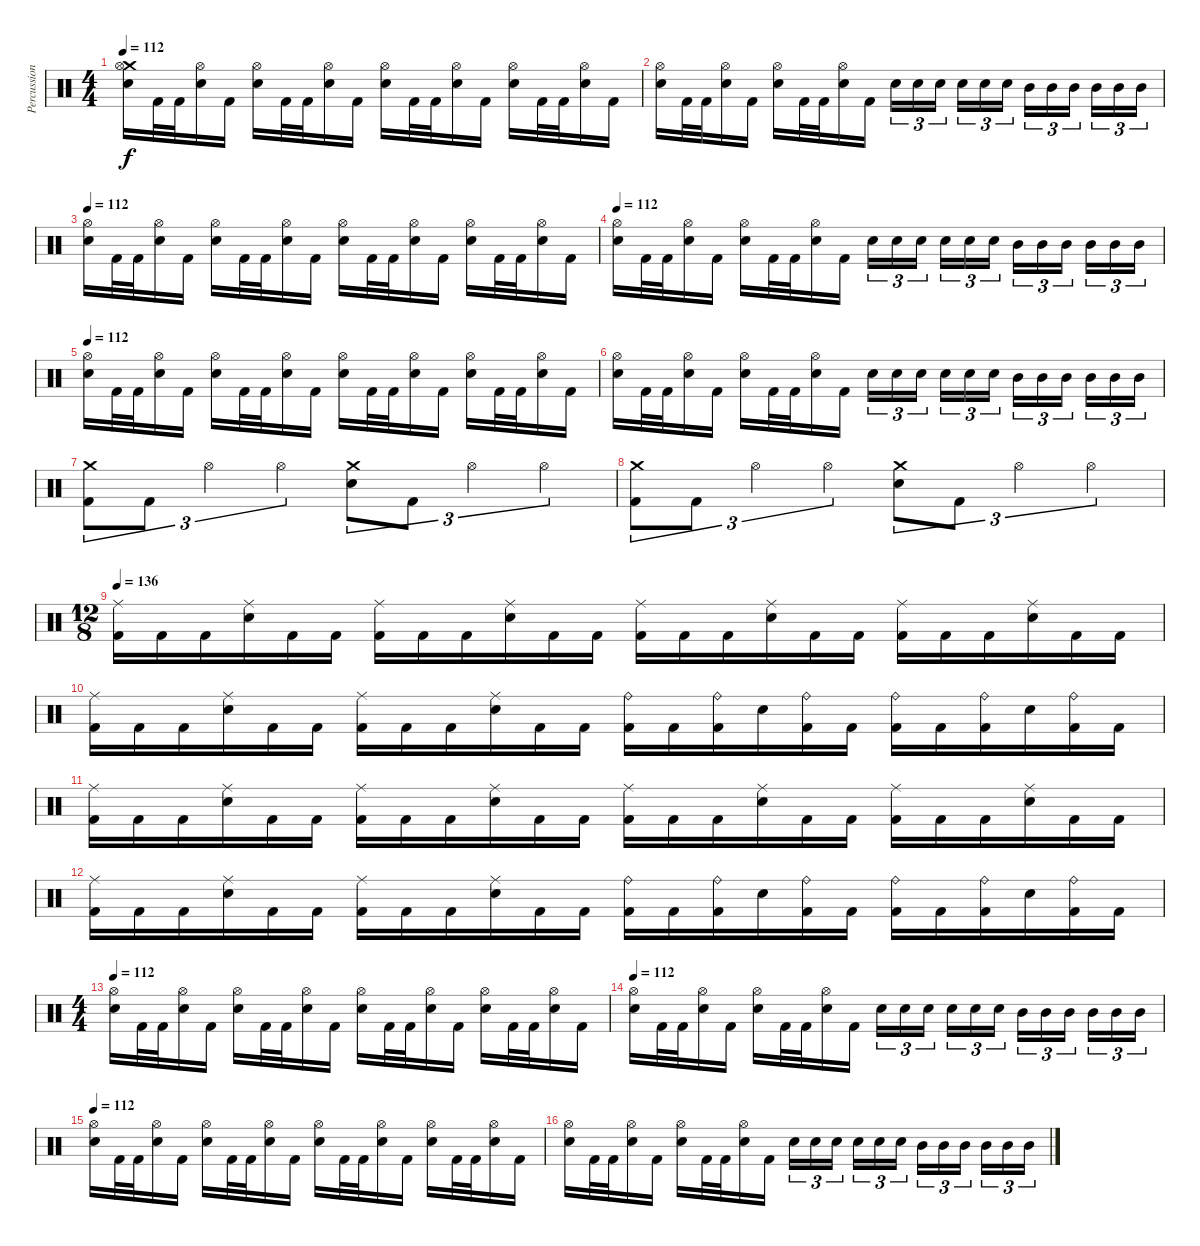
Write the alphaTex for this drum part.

\track ("Percussion" "Percussion") {instrument percussion}
\staff {score}
\articulation defaults
\ts (4 4)
\tempo 112
\clef neutral
\ks c
("Crash medium (hit)" "Hi-Hat (open)" "Snare (hit) 2").16{dy f} "Kick (hit) 2".32 "Kick (hit) 2".32 ("Hi-Hat (open)" "Snare (hit) 2").16 "Kick (hit) 2".16 ("Hi-Hat (open)" "Snare (hit) 2").16 "Kick (hit) 2".32 "Kick (hit) 2".32 ("Hi-Hat (open)" "Snare (hit) 2").16 "Kick (hit) 2".16 ("Hi-Hat (open)" "Snare (hit) 2").16 "Kick (hit) 2".32 "Kick (hit) 2".32 ("Hi-Hat (open)" "Snare (hit) 2").16 "Kick (hit) 2".16 ("Hi-Hat (open)" "Snare (hit) 2").16 "Kick (hit) 2".32 "Kick (hit) 2".32 ("Hi-Hat (open)" "Snare (hit) 2").16 "Kick (hit) 2".16 |
("Hi-Hat (open)" "Snare (hit) 2").16 "Kick (hit) 2".32 "Kick (hit) 2".32 ("Hi-Hat (open)" "Snare (hit) 2").16 "Kick (hit) 2".16 ("Hi-Hat (open)" "Snare (hit) 2").16 "Kick (hit) 2".32 "Kick (hit) 2".32 ("Hi-Hat (open)" "Snare (hit) 2").16 "Kick (hit) 2".16 "Snare (hit) 2".16{tu (3 2)} "Snare (hit) 2".16{tu (3 2)} "Snare (hit) 2".16{tu (3 2) beam splitsecondary} "Snare (hit) 2".16{tu (3 2)} "Snare (hit) 2".16{tu (3 2)} "Snare (hit) 2".16{tu (3 2)} "Mid Tom (hit)".16{tu (3 2)} "Mid Tom (hit)".16{tu (3 2)} "Mid Tom (hit)".16{tu (3 2) beam splitsecondary} "Mid Tom (hit)".16{tu (3 2)} "Mid Tom (hit)".16{tu (3 2)} "Mid Tom (hit)".16{tu (3 2)} |
\tempo 112
("Hi-Hat (open)" "Snare (hit) 2").16 "Kick (hit) 2".32 "Kick (hit) 2".32 ("Hi-Hat (open)" "Snare (hit) 2").16 "Kick (hit) 2".16 ("Hi-Hat (open)" "Snare (hit) 2").16 "Kick (hit) 2".32 "Kick (hit) 2".32 ("Hi-Hat (open)" "Snare (hit) 2").16 "Kick (hit) 2".16 ("Hi-Hat (open)" "Snare (hit) 2").16 "Kick (hit) 2".32 "Kick (hit) 2".32 ("Hi-Hat (open)" "Snare (hit) 2").16 "Kick (hit) 2".16 ("Hi-Hat (open)" "Snare (hit) 2").16 "Kick (hit) 2".32 "Kick (hit) 2".32 ("Hi-Hat (open)" "Snare (hit) 2").16 "Kick (hit) 2".16 |
\tempo 112
("Hi-Hat (open)" "Snare (hit) 2").16 "Kick (hit) 2".32 "Kick (hit) 2".32 ("Hi-Hat (open)" "Snare (hit) 2").16 "Kick (hit) 2".16 ("Hi-Hat (open)" "Snare (hit) 2").16 "Kick (hit) 2".32 "Kick (hit) 2".32 ("Hi-Hat (open)" "Snare (hit) 2").16 "Kick (hit) 2".16 "Snare (hit) 2".16{tu (3 2)} "Snare (hit) 2".16{tu (3 2)} "Snare (hit) 2".16{tu (3 2) beam splitsecondary} "Snare (hit) 2".16{tu (3 2)} "Snare (hit) 2".16{tu (3 2)} "Snare (hit) 2".16{tu (3 2)} "Mid Tom (hit)".16{tu (3 2)} "Mid Tom (hit)".16{tu (3 2)} "Mid Tom (hit)".16{tu (3 2) beam splitsecondary} "Mid Tom (hit)".16{tu (3 2)} "Mid Tom (hit)".16{tu (3 2)} "Mid Tom (hit)".16{tu (3 2)} |
\tempo 112
("Hi-Hat (open)" "Snare (hit) 2").16 "Kick (hit) 2".32 "Kick (hit) 2".32 ("Hi-Hat (open)" "Snare (hit) 2").16 "Kick (hit) 2".16 ("Hi-Hat (open)" "Snare (hit) 2").16 "Kick (hit) 2".32 "Kick (hit) 2".32 ("Hi-Hat (open)" "Snare (hit) 2").16 "Kick (hit) 2".16 ("Hi-Hat (open)" "Snare (hit) 2").16 "Kick (hit) 2".32 "Kick (hit) 2".32 ("Hi-Hat (open)" "Snare (hit) 2").16 "Kick (hit) 2".16 ("Hi-Hat (open)" "Snare (hit) 2").16 "Kick (hit) 2".32 "Kick (hit) 2".32 ("Hi-Hat (open)" "Snare (hit) 2").16 "Kick (hit) 2".16 |
("Hi-Hat (open)" "Snare (hit) 2").16 "Kick (hit) 2".32 "Kick (hit) 2".32 ("Hi-Hat (open)" "Snare (hit) 2").16 "Kick (hit) 2".16 ("Hi-Hat (open)" "Snare (hit) 2").16 "Kick (hit) 2".32 "Kick (hit) 2".32 ("Hi-Hat (open)" "Snare (hit) 2").16 "Kick (hit) 2".16 "Snare (hit) 2".16{tu (3 2)} "Snare (hit) 2".16{tu (3 2)} "Snare (hit) 2".16{tu (3 2) beam splitsecondary} "Snare (hit) 2".16{tu (3 2)} "Snare (hit) 2".16{tu (3 2)} "Snare (hit) 2".16{tu (3 2)} "Mid Tom (hit)".16{tu (3 2)} "Mid Tom (hit)".16{tu (3 2)} "Mid Tom (hit)".16{tu (3 2) beam splitsecondary} "Mid Tom (hit)".16{tu (3 2)} "Mid Tom (hit)".16{tu (3 2)} "Mid Tom (hit)".16{tu (3 2)} |
("Crash medium (hit)" "Kick (hit) 2").8{tu (3 2)} "Kick (hit) 2".8{tu (3 2)} "Hi-Hat (open)".4{tu (3 2)} "Hi-Hat (open)".4{tu (3 2)} ("Crash medium (hit)" "Snare (hit) 2").8{tu (3 2)} "Kick (hit) 2".8{tu (3 2)} "Hi-Hat (open)".4{tu (3 2)} "Hi-Hat (open)".4{tu (3 2)} |
("Crash medium (hit)" "Kick (hit) 2").8{tu (3 2)} "Kick (hit) 2".8{tu (3 2)} "Hi-Hat (open)".4{tu (3 2)} "Hi-Hat (open)".4{tu (3 2)} ("Crash medium (hit)" "Snare (hit) 2").8{tu (3 2)} "Kick (hit) 2".8{tu (3 2)} "Hi-Hat (open)".4{tu (3 2)} "Hi-Hat (open)".4{tu (3 2)} |
\ts (12 8)
\tempo 120
\tempo 136
("Ride (middle)" "Kick (hit) 2").16 "Kick (hit) 2".16 "Kick (hit) 2".16 ("Ride (middle)" "Snare (hit) 2").16 "Kick (hit) 2".16 "Kick (hit) 2".16 ("Ride (middle)" "Kick (hit) 2").16 "Kick (hit) 2".16 "Kick (hit) 2".16 ("Ride (middle)" "Snare (hit) 2").16 "Kick (hit) 2".16 "Kick (hit) 2".16 ("Ride (middle)" "Kick (hit) 2").16 "Kick (hit) 2".16 "Kick (hit) 2".16 ("Ride (middle)" "Snare (hit) 2").16 "Kick (hit) 2".16 "Kick (hit) 2".16 ("Ride (middle)" "Kick (hit) 2").16 "Kick (hit) 2".16 "Kick (hit) 2".16 ("Ride (middle)" "Snare (hit) 2").16 "Kick (hit) 2".16 "Kick (hit) 2".16 |
("Ride (middle)" "Kick (hit) 2").16 "Kick (hit) 2".16 "Kick (hit) 2".16 ("Ride (middle)" "Snare (hit) 2").16 "Kick (hit) 2".16 "Kick (hit) 2".16 ("Ride (middle)" "Kick (hit) 2").16 "Kick (hit) 2".16 "Kick (hit) 2".16 ("Ride (middle)" "Snare (hit) 2").16 "Kick (hit) 2".16 "Kick (hit) 2".16 ("Ride (bell)" "Kick (hit) 2").16 "Kick (hit) 2".16 ("Ride (bell)" "Kick (hit) 2").16 "Snare (hit) 2".16 ("Ride (bell)" "Kick (hit) 2").16 "Kick (hit) 2".16 ("Ride (bell)" "Kick (hit) 2").16 "Kick (hit) 2".16 ("Ride (bell)" "Kick (hit) 2").16 "Snare (hit) 2".16 ("Ride (bell)" "Kick (hit) 2").16 "Kick (hit) 2".16 |
("Ride (middle)" "Kick (hit) 2").16 "Kick (hit) 2".16 "Kick (hit) 2".16 ("Ride (middle)" "Snare (hit) 2").16 "Kick (hit) 2".16 "Kick (hit) 2".16 ("Ride (middle)" "Kick (hit) 2").16 "Kick (hit) 2".16 "Kick (hit) 2".16 ("Ride (middle)" "Snare (hit) 2").16 "Kick (hit) 2".16 "Kick (hit) 2".16 ("Ride (middle)" "Kick (hit) 2").16 "Kick (hit) 2".16 "Kick (hit) 2".16 ("Ride (middle)" "Snare (hit) 2").16 "Kick (hit) 2".16 "Kick (hit) 2".16 ("Ride (middle)" "Kick (hit) 2").16 "Kick (hit) 2".16 "Kick (hit) 2".16 ("Ride (middle)" "Snare (hit) 2").16 "Kick (hit) 2".16 "Kick (hit) 2".16 |
("Ride (middle)" "Kick (hit) 2").16 "Kick (hit) 2".16 "Kick (hit) 2".16 ("Ride (middle)" "Snare (hit) 2").16 "Kick (hit) 2".16 "Kick (hit) 2".16 ("Ride (middle)" "Kick (hit) 2").16 "Kick (hit) 2".16 "Kick (hit) 2".16 ("Ride (middle)" "Snare (hit) 2").16 "Kick (hit) 2".16 "Kick (hit) 2".16 ("Ride (bell)" "Kick (hit) 2").16 "Kick (hit) 2".16 ("Ride (bell)" "Kick (hit) 2").16 "Snare (hit) 2".16 ("Ride (bell)" "Kick (hit) 2").16 "Kick (hit) 2".16 ("Ride (bell)" "Kick (hit) 2").16 "Kick (hit) 2".16 ("Ride (bell)" "Kick (hit) 2").16 "Snare (hit) 2".16 ("Ride (bell)" "Kick (hit) 2").16 "Kick (hit) 2".16 |
\ts (4 4)
\tempo 112
("Hi-Hat (open)" "Snare (hit) 2").16 "Kick (hit) 2".32 "Kick (hit) 2".32 ("Hi-Hat (open)" "Snare (hit) 2").16 "Kick (hit) 2".16 ("Hi-Hat (open)" "Snare (hit) 2").16 "Kick (hit) 2".32 "Kick (hit) 2".32 ("Hi-Hat (open)" "Snare (hit) 2").16 "Kick (hit) 2".16 ("Hi-Hat (open)" "Snare (hit) 2").16 "Kick (hit) 2".32 "Kick (hit) 2".32 ("Hi-Hat (open)" "Snare (hit) 2").16 "Kick (hit) 2".16 ("Hi-Hat (open)" "Snare (hit) 2").16 "Kick (hit) 2".32 "Kick (hit) 2".32 ("Hi-Hat (open)" "Snare (hit) 2").16 "Kick (hit) 2".16 |
\tempo 112
("Hi-Hat (open)" "Snare (hit) 2").16 "Kick (hit) 2".32 "Kick (hit) 2".32 ("Hi-Hat (open)" "Snare (hit) 2").16 "Kick (hit) 2".16 ("Hi-Hat (open)" "Snare (hit) 2").16 "Kick (hit) 2".32 "Kick (hit) 2".32 ("Hi-Hat (open)" "Snare (hit) 2").16 "Kick (hit) 2".16 "Snare (hit) 2".16{tu (3 2)} "Snare (hit) 2".16{tu (3 2)} "Snare (hit) 2".16{tu (3 2) beam splitsecondary} "Snare (hit) 2".16{tu (3 2)} "Snare (hit) 2".16{tu (3 2)} "Snare (hit) 2".16{tu (3 2)} "Mid Tom (hit)".16{tu (3 2)} "Mid Tom (hit)".16{tu (3 2)} "Mid Tom (hit)".16{tu (3 2) beam splitsecondary} "Mid Tom (hit)".16{tu (3 2)} "Mid Tom (hit)".16{tu (3 2)} "Mid Tom (hit)".16{tu (3 2)} |
\tempo 112
("Hi-Hat (open)" "Snare (hit) 2").16 "Kick (hit) 2".32 "Kick (hit) 2".32 ("Hi-Hat (open)" "Snare (hit) 2").16 "Kick (hit) 2".16 ("Hi-Hat (open)" "Snare (hit) 2").16 "Kick (hit) 2".32 "Kick (hit) 2".32 ("Hi-Hat (open)" "Snare (hit) 2").16 "Kick (hit) 2".16 ("Hi-Hat (open)" "Snare (hit) 2").16 "Kick (hit) 2".32 "Kick (hit) 2".32 ("Hi-Hat (open)" "Snare (hit) 2").16 "Kick (hit) 2".16 ("Hi-Hat (open)" "Snare (hit) 2").16 "Kick (hit) 2".32 "Kick (hit) 2".32 ("Hi-Hat (open)" "Snare (hit) 2").16 "Kick (hit) 2".16 |
("Hi-Hat (open)" "Snare (hit) 2").16 "Kick (hit) 2".32 "Kick (hit) 2".32 ("Hi-Hat (open)" "Snare (hit) 2").16 "Kick (hit) 2".16 ("Hi-Hat (open)" "Snare (hit) 2").16 "Kick (hit) 2".32 "Kick (hit) 2".32 ("Hi-Hat (open)" "Snare (hit) 2").16 "Kick (hit) 2".16 "Snare (hit) 2".16{tu (3 2)} "Snare (hit) 2".16{tu (3 2)} "Snare (hit) 2".16{tu (3 2) beam splitsecondary} "Snare (hit) 2".16{tu (3 2)} "Snare (hit) 2".16{tu (3 2)} "Snare (hit) 2".16{tu (3 2)} "Mid Tom (hit)".16{tu (3 2)} "Mid Tom (hit)".16{tu (3 2)} "Mid Tom (hit)".16{tu (3 2) beam splitsecondary} "Mid Tom (hit)".16{tu (3 2)} "Mid Tom (hit)".16{tu (3 2)} "Mid Tom (hit)".16{tu (3 2)}
